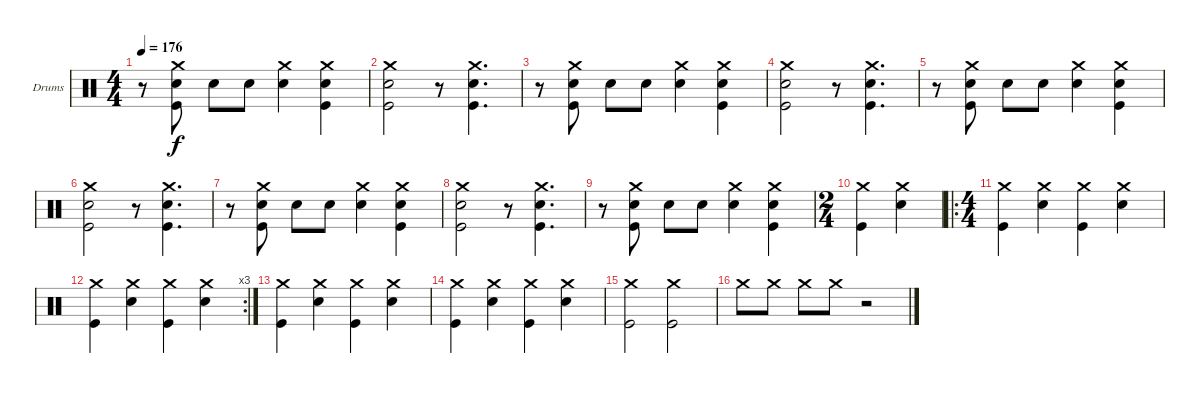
\bracketExtendMode groupsimilarinstruments
\firstSystemTrackNameOrientation horizontal
\otherSystemsTrackNameOrientation horizontal
\track ("Drumkit" "Drums") {instrument percussion}
\staff {score}
\articulation defaults
\ts (4 4)
\tempo 176
\clef neutral
\ks c
r.8{dy f} ("Crash medium (hit)" "Snare (hit) 2" "Kick (hit)").8 "Snare (hit) 2".8 "Snare (hit) 2".8 ("Crash medium (hit)" "Snare (hit) 2").4 ("Crash medium (hit)" "Snare (hit) 2" "Kick (hit)").4 |
("Crash medium (hit)" "Snare (hit) 2" "Kick (hit)").2 r.8 ("Crash medium (hit)" "Snare (hit) 2" "Kick (hit)").4{d} |
r.8 ("Crash medium (hit)" "Snare (hit) 2" "Kick (hit)").8 "Snare (hit) 2".8 "Snare (hit) 2".8 ("Crash medium (hit)" "Snare (hit) 2").4 ("Crash medium (hit)" "Snare (hit) 2" "Kick (hit)").4 |
("Crash medium (hit)" "Snare (hit) 2" "Kick (hit)").2 r.8 ("Crash medium (hit)" "Snare (hit) 2" "Kick (hit)").4{d} |
r.8 ("Crash medium (hit)" "Snare (hit) 2" "Kick (hit)").8 "Snare (hit) 2".8 "Snare (hit) 2".8 ("Crash medium (hit)" "Snare (hit) 2").4 ("Crash medium (hit)" "Snare (hit) 2" "Kick (hit)").4 |
("Crash medium (hit)" "Snare (hit) 2" "Kick (hit)").2 r.8 ("Crash medium (hit)" "Snare (hit) 2" "Kick (hit)").4{d} |
r.8 ("Crash medium (hit)" "Snare (hit) 2" "Kick (hit)").8 "Snare (hit) 2".8 "Snare (hit) 2".8 ("Crash medium (hit)" "Snare (hit) 2").4 ("Crash medium (hit)" "Snare (hit) 2" "Kick (hit)").4 |
("Crash medium (hit)" "Snare (hit) 2" "Kick (hit)").2 r.8 ("Crash medium (hit)" "Snare (hit) 2" "Kick (hit)").4{d} |
r.8 ("Crash medium (hit)" "Snare (hit) 2" "Kick (hit)").8 "Snare (hit) 2".8 "Snare (hit) 2".8 ("Crash medium (hit)" "Snare (hit) 2").4 ("Crash medium (hit)" "Snare (hit) 2" "Kick (hit)").4 |
\ts (2 4)
\beaming (8 2 2)
("Crash medium (hit)" "Kick (hit)").4 ("Crash medium (hit)" "Snare (hit) 2").4 |
\ro
\ts (4 4)
\beaming (8 2 2 2 2)
("Crash medium (hit)" "Kick (hit)").4 ("Crash medium (hit)" "Snare (hit) 2").4 ("Crash medium (hit)" "Kick (hit)").4 ("Crash medium (hit)" "Snare (hit) 2").4 |
\rc 3
("Crash medium (hit)" "Kick (hit)").4 ("Crash medium (hit)" "Snare (hit) 2").4 ("Crash medium (hit)" "Kick (hit)").4 ("Crash medium (hit)" "Snare (hit) 2").4 |
("Crash medium (hit)" "Kick (hit)").4 ("Crash medium (hit)" "Snare (hit) 2").4 ("Crash medium (hit)" "Kick (hit)").4 ("Crash medium (hit)" "Snare (hit) 2").4 |
("Crash medium (hit)" "Kick (hit)").4 ("Crash medium (hit)" "Snare (hit) 2").4 ("Crash medium (hit)" "Kick (hit)").4 ("Crash medium (hit)" "Snare (hit) 2").4 |
("Crash medium (hit)" "Kick (hit)").2 ("Crash medium (hit)" "Kick (hit)").2 |
"Crash medium (hit)".8 "Crash medium (hit)".8 "Crash medium (hit)".8 "Crash medium (hit)".8 r.2
